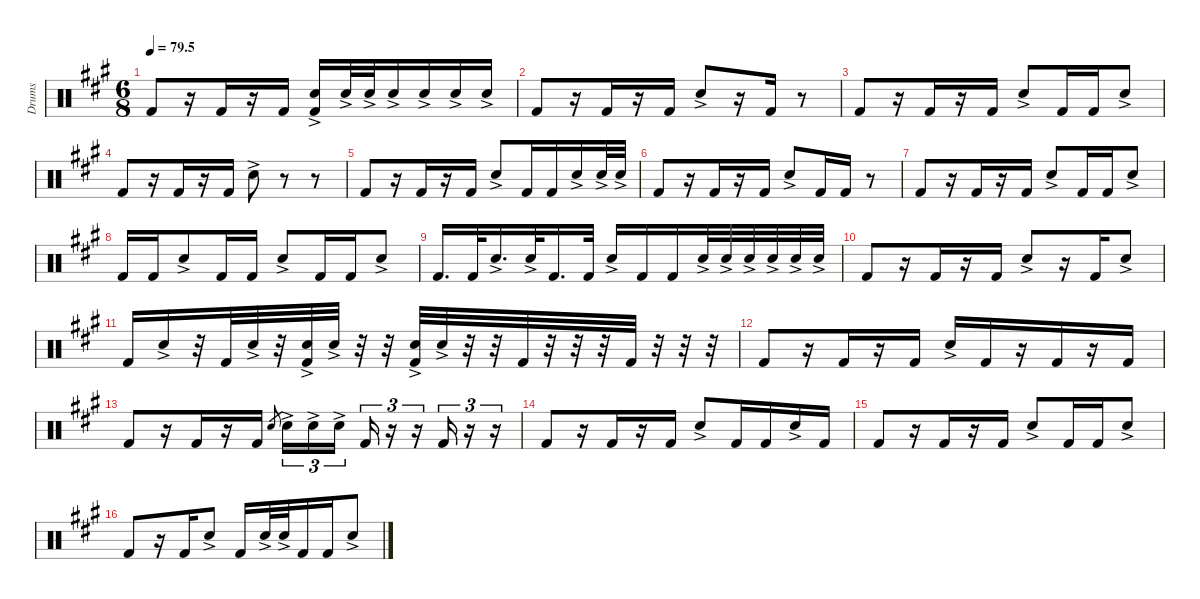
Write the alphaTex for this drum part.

\defaultSystemsLayout 4
\hideDynamics
\bracketExtendMode nobrackets
\otherSystemsTrackNameOrientation horizontal
\track ("F&S" "Drums") {instrument percussion}
\staff {score}
\articulation defaults
\ts (6 8)
\tempo
79.5
\accidentals auto
\clef neutral
\ottava regular
\simile none
\scale
0.333333
\ks a "Kick (hit) 2"{acc forcenatural}.8{dy f}
r.16 "Kick (hit) 2"{acc forcenatural}.16 r.16 "Kick (hit) 2"{acc forcenatural}.16 ("Snare (hit) 2"{ac acc forcenatural} "Kick (hit) 2"{acc forcenatural}).16 "Snare (hit) 2"{ac acc forcenatural}.32 "Snare (hit) 2"{ac acc forcenatural}.32 "Snare (hit) 2"{ac acc forcenatural}.16 "Snare (hit) 2"{ac acc forcenatural}.16 "Snare (hit) 2"{ac acc forcenatural}.16 "Snare (hit) 2"{ac acc forcenatural}.16 |
\scale
0.333333 "Kick (hit) 2"{acc forcenatural}.8 r.16 "Kick (hit) 2"{acc forcenatural}.16 r.16 "Kick (hit) 2"{acc forcenatural}.16 "Snare (hit) 2"{ac acc forcenatural}.8 r.16 "Kick (hit) 2"{acc forcenatural}.16 r.8 |
\scale
0.333333 "Kick (hit) 2"{acc forcenatural}.8 r.16 "Kick (hit) 2"{acc forcenatural}.16 r.16 "Kick (hit) 2"{acc forcenatural}.16 "Snare (hit) 2"{ac acc forcenatural}.8 "Kick (hit) 2"{acc forcenatural}.16 "Kick (hit) 2"{acc forcenatural}.16 "Snare (hit) 2"{ac acc forcenatural}.8 |
\scale
0.333333 "Kick (hit) 2"{acc forcenatural}.8 r.16 "Kick (hit) 2"{acc forcenatural}.16 r.16 "Kick (hit) 2"{acc forcenatural}.16 "Snare (hit) 2"{ac acc forcenatural}.8 r.8 r.8 |
\scale
0.333333 "Kick (hit) 2"{acc forcenatural}.8 r.16 "Kick (hit) 2"{acc forcenatural}.16 r.16 "Kick (hit) 2"{acc forcenatural}.16 "Snare (hit) 2"{ac acc forcenatural}.8 "Kick (hit) 2"{acc forcenatural}.16 "Kick (hit) 2"{acc forcenatural}.16 "Snare (hit) 2"{ac acc forcenatural}.16 "Snare (hit) 2"{ac acc forcenatural}.32 "Snare (hit) 2"{ac acc forcenatural}.32 |
\scale
0.333333 "Kick (hit) 2"{acc forcenatural}.8 r.16 "Kick (hit) 2"{acc forcenatural}.16 r.16 "Kick (hit) 2"{acc forcenatural}.16 "Snare (hit) 2"{ac acc forcenatural}.8 "Kick (hit) 2"{acc forcenatural}.16 "Kick (hit) 2"{acc forcenatural}.16 r.8 |
\scale
0.333333 "Kick (hit) 2"{acc forcenatural}.8 r.16 "Kick (hit) 2"{acc forcenatural}.16 r.16 "Kick (hit) 2"{acc forcenatural}.16 "Snare (hit) 2"{ac acc forcenatural}.8 "Kick (hit) 2"{acc forcenatural}.16 "Kick (hit) 2"{acc forcenatural}.16 "Snare (hit) 2"{ac acc forcenatural}.8 |
\scale
0.333333 "Kick (hit) 2"{acc forcenatural}.16 "Kick (hit) 2"{acc forcenatural}.16 "Snare (hit) 2"{ac acc forcenatural}.8 "Kick (hit) 2"{acc forcenatural}.16 "Kick (hit) 2"{acc forcenatural}.16 "Snare (hit) 2"{ac acc forcenatural}.8 "Kick (hit) 2"{acc forcenatural}.16 "Kick (hit) 2"{acc forcenatural}.16 "Snare (hit) 2"{ac acc forcenatural}.8 |
\scale
0.333333 "Kick (hit) 2"{acc forcenatural}.16{d} "Kick (hit) 2"{acc forcenatural}.32 "Snare (hit) 2"{ac acc forcenatural}.16{d} "Snare (hit) 2"{ac acc forcenatural}.32 "Kick (hit) 2"{acc forcenatural}.16{d} "Kick (hit) 2"{acc forcenatural}.32 "Snare (hit) 2"{ac acc forcenatural}.16 "Kick (hit) 2"{acc forcenatural}.16 "Kick (hit) 2"{acc forcenatural}.16 "Snare (hit) 2"{ac acc forcenatural}.32 "Snare (hit) 2"{ac acc forcenatural}.32 "Snare (hit) 2"{ac acc forcenatural}.32 "Snare (hit) 2"{ac acc forcenatural}.32 "Snare (hit) 2"{ac acc forcenatural}.32 "Snare (hit) 2"{ac acc forcenatural}.32 |
\scale
0.333333 "Kick (hit) 2"{acc forcenatural}.8 r.16 "Kick (hit) 2"{acc forcenatural}.16 r.16 "Kick (hit) 2"{acc forcenatural}.16 "Snare (hit) 2"{ac acc forcenatural}.8 r.16 "Kick (hit) 2"{acc forcenatural}.16 "Snare (hit) 2"{ac acc forcenatural}.8 |
\scale
0.333333 "Kick (hit) 2"{acc forcenatural}.16 "Snare (hit) 2"{ac acc forcenatural}.16 r.32 "Kick (hit) 2"{acc forcenatural}.32 "Snare (hit) 2"{ac acc forcenatural}.32 r.32 ("Snare (hit) 2"{ac acc forcenatural} "Kick (hit) 2"{acc forcenatural}).32 "Snare (hit) 2"{ac acc forcenatural}.32 r.32 r.32 ("Snare (hit) 2"{ac acc forcenatural} "Kick (hit) 2"{acc forcenatural}).32 "Snare (hit) 2"{ac acc forcenatural}.32 r.32 r.32 "Kick (hit) 2"{acc forcenatural}.32 r.32 r.32 r.32 "Kick (hit) 2"{acc forcenatural}.32 r.32 r.32 r.32 |
\scale
0.333333 "Kick (hit) 2"{acc forcenatural}.8 r.16 "Kick (hit) 2"{acc forcenatural}.16 r.16 "Kick (hit) 2"{acc forcenatural}.16 "Snare (hit) 2"{ac acc forcenatural}.16 "Kick (hit) 2"{acc forcenatural}.16 r.16 "Kick (hit) 2"{acc forcenatural}.16 r.16 "Kick (hit) 2"{acc forcenatural}.16 |
\scale
0.333333 "Kick (hit) 2"{acc forcenatural}.8 r.16 "Kick (hit) 2"{acc forcenatural}.16 r.16 "Kick (hit) 2"{acc forcenatural}.16 "Snare (hit) 2"{acc forcenatural}.8{gr} "Snare (hit) 2"{ac acc forcenatural}.16{tu (3 2)} "Snare (hit) 2"{ac acc forcenatural}.16{tu (3 2)} "Snare (hit) 2"{ac acc forcenatural}.16{tu (3 2)} "Kick (hit) 2"{acc forcenatural}.16{tu (3 2)} r.16{tu (3 2)} r.16{tu (3 2)} "Kick (hit) 2"{acc forcenatural}.16{tu (3 2)} r.16{tu (3 2)} r.16{tu (3 2)} |
\scale
0.333333 "Kick (hit) 2"{acc forcenatural}.8 r.16 "Kick (hit) 2"{acc forcenatural}.16 r.16 "Kick (hit) 2"{acc forcenatural}.16 "Snare (hit) 2"{ac acc forcenatural}.8 "Kick (hit) 2"{acc forcenatural}.16 "Kick (hit) 2"{acc forcenatural}.16 "Snare (hit) 2"{ac acc forcenatural}.16 "Kick (hit) 2"{acc forcenatural}.16 |
\scale
0.333333 "Kick (hit) 2"{acc forcenatural}.8 r.16 "Kick (hit) 2"{acc forcenatural}.16 r.16 "Kick (hit) 2"{acc forcenatural}.16 "Snare (hit) 2"{ac acc forcenatural}.8 "Kick (hit) 2"{acc forcenatural}.16 "Kick (hit) 2"{acc forcenatural}.16 "Snare (hit) 2"{ac acc forcenatural}.8 |
\scale
0.333333 "Kick (hit) 2"{acc forcenatural}.8 r.16 "Kick (hit) 2"{acc forcenatural}.16 "Snare (hit) 2"{ac acc forcenatural}.8 "Kick (hit) 2"{acc forcenatural}.16 "Snare (hit) 2"{ac acc forcenatural}.32 "Snare (hit) 2"{ac acc forcenatural}.32 "Kick (hit) 2"{acc forcenatural}.16 "Kick (hit) 2"{acc forcenatural}.16 "Snare (hit) 2"{ac acc forcenatural}.8
